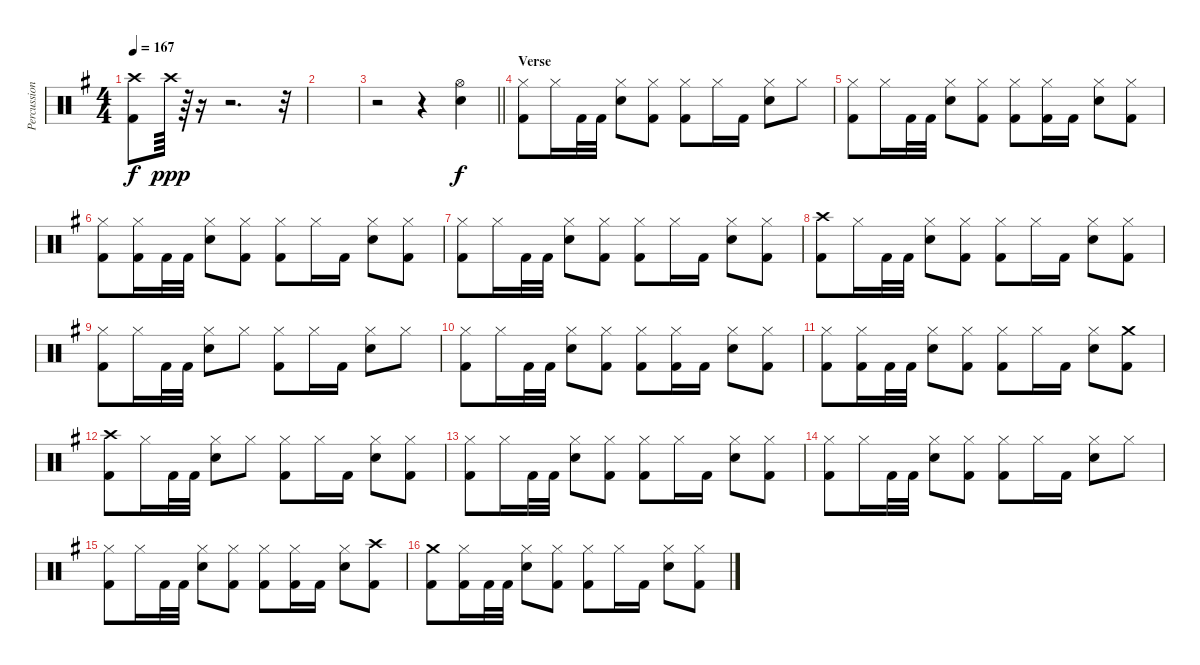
\track ("Percussion" "Percussion") {instrument percussion}
\staff {score}
\articulation defaults
\ts (4 4)
\tempo 167
\clef neutral
\ks g
("Crash high (hit)" "Kick (hit) 2").8{dy f} "Crash high (hit)".64{dy ppp} r.64 r.16 r.2{d} r.32 |
|
\barLineRight lightlight
r.2 r.4 ("Hi-Hat (open)" "Snare (hit) 2").4{dy f} |
\section ("" "Verse")
("Hi-Hat (closed)" "Kick (hit) 2").8 "Hi-Hat (closed)".16 "Kick (hit) 2".32 "Kick (hit) 2".32 ("Hi-Hat (closed)" "Snare (hit) 2").8 ("Hi-Hat (closed)" "Kick (hit) 2").8 ("Hi-Hat (closed)" "Kick (hit) 2").8 "Hi-Hat (closed)".16 "Kick (hit) 2".16 ("Hi-Hat (closed)" "Snare (hit) 2").8 "Hi-Hat (closed)".8 |
("Hi-Hat (closed)" "Kick (hit) 2").8 "Hi-Hat (closed)".16 "Kick (hit) 2".32 "Kick (hit) 2".32 ("Hi-Hat (closed)" "Snare (hit) 2").8 ("Hi-Hat (closed)" "Kick (hit) 2").8 ("Hi-Hat (closed)" "Kick (hit) 2").8 ("Hi-Hat (closed)" "Kick (hit) 2").16 "Kick (hit) 2".16 ("Hi-Hat (closed)" "Snare (hit) 2").8 ("Hi-Hat (closed)" "Kick (hit) 2").8 |
("Hi-Hat (closed)" "Kick (hit) 2").8 ("Hi-Hat (closed)" "Kick (hit) 2").16 "Kick (hit) 2".32 "Kick (hit) 2".32 ("Hi-Hat (closed)" "Snare (hit) 2").8 ("Hi-Hat (closed)" "Kick (hit) 2").8 ("Hi-Hat (closed)" "Kick (hit) 2").8 "Hi-Hat (closed)".16 "Kick (hit) 2".16 ("Hi-Hat (closed)" "Snare (hit) 2").8 ("Hi-Hat (closed)" "Kick (hit) 2").8 |
("Hi-Hat (closed)" "Kick (hit) 2").8 "Hi-Hat (closed)".16 "Kick (hit) 2".32 "Kick (hit) 2".32 ("Hi-Hat (closed)" "Snare (hit) 2").8 ("Hi-Hat (closed)" "Kick (hit) 2").8 ("Hi-Hat (closed)" "Kick (hit) 2").8 "Hi-Hat (closed)".16 "Kick (hit) 2".16 ("Hi-Hat (closed)" "Snare (hit) 2").8 ("Hi-Hat (closed)" "Kick (hit) 2").8 |
("Crash high (hit)" "Kick (hit) 2").8 "Hi-Hat (closed)".16 "Kick (hit) 2".32 "Kick (hit) 2".32 ("Hi-Hat (closed)" "Snare (hit) 2").8 ("Hi-Hat (closed)" "Kick (hit) 2").8 ("Hi-Hat (closed)" "Kick (hit) 2").8 "Hi-Hat (closed)".16 "Kick (hit) 2".16 ("Hi-Hat (closed)" "Snare (hit) 2").8 ("Hi-Hat (closed)" "Kick (hit) 2").8 |
("Hi-Hat (closed)" "Kick (hit) 2").8 "Hi-Hat (closed)".16 "Kick (hit) 2".32 "Kick (hit) 2".32 ("Hi-Hat (closed)" "Snare (hit) 2").8 "Hi-Hat (closed)".8 ("Hi-Hat (closed)" "Kick (hit) 2").8 "Hi-Hat (closed)".16 "Kick (hit) 2".16 ("Hi-Hat (closed)" "Snare (hit) 2").8 "Hi-Hat (closed)".8 |
("Hi-Hat (closed)" "Kick (hit) 2").8 "Hi-Hat (closed)".16 "Kick (hit) 2".32 "Kick (hit) 2".32 ("Hi-Hat (closed)" "Snare (hit) 2").8 ("Hi-Hat (closed)" "Kick (hit) 2").8 ("Hi-Hat (closed)" "Kick (hit) 2").8 ("Hi-Hat (closed)" "Kick (hit) 2").16 "Kick (hit) 2".16 ("Hi-Hat (closed)" "Snare (hit) 2").8 ("Hi-Hat (closed)" "Kick (hit) 2").8 |
("Hi-Hat (closed)" "Kick (hit) 2").8 ("Hi-Hat (closed)" "Kick (hit) 2").16 "Kick (hit) 2".32 "Kick (hit) 2".32 ("Hi-Hat (closed)" "Snare (hit) 2").8 ("Hi-Hat (closed)" "Kick (hit) 2").8 ("Hi-Hat (closed)" "Kick (hit) 2").8 "Hi-Hat (closed)".16 "Kick (hit) 2".16 ("Hi-Hat (closed)" "Snare (hit) 2").8 ("Crash medium (hit)" "Kick (hit) 2").8 |
("Crash high (hit)" "Kick (hit) 2").8 "Hi-Hat (closed)".16 "Kick (hit) 2".32 "Kick (hit) 2".32 ("Hi-Hat (closed)" "Snare (hit) 2").8 "Hi-Hat (closed)".8 ("Hi-Hat (closed)" "Kick (hit) 2").8 "Hi-Hat (closed)".16 "Kick (hit) 2".16 ("Hi-Hat (closed)" "Snare (hit) 2").8 ("Hi-Hat (closed)" "Kick (hit) 2").8 |
("Hi-Hat (closed)" "Kick (hit) 2").8 "Hi-Hat (closed)".16 "Kick (hit) 2".32 "Kick (hit) 2".32 ("Hi-Hat (closed)" "Snare (hit) 2").8 ("Hi-Hat (closed)" "Kick (hit) 2").8 ("Hi-Hat (closed)" "Kick (hit) 2").8 "Hi-Hat (closed)".16 "Kick (hit) 2".16 ("Hi-Hat (closed)" "Snare (hit) 2").8 ("Hi-Hat (closed)" "Kick (hit) 2").8 |
("Hi-Hat (closed)" "Kick (hit) 2").8 "Hi-Hat (closed)".16 "Kick (hit) 2".32 "Kick (hit) 2".32 ("Hi-Hat (closed)" "Snare (hit) 2").8 ("Hi-Hat (closed)" "Kick (hit) 2").8 ("Hi-Hat (closed)" "Kick (hit) 2").8 "Hi-Hat (closed)".16 "Kick (hit) 2".16 ("Hi-Hat (closed)" "Snare (hit) 2").8 "Hi-Hat (closed)".8 |
("Hi-Hat (closed)" "Kick (hit) 2").8 "Hi-Hat (closed)".16 "Kick (hit) 2".32 "Kick (hit) 2".32 ("Hi-Hat (closed)" "Snare (hit) 2").8 ("Hi-Hat (closed)" "Kick (hit) 2").8 ("Hi-Hat (closed)" "Kick (hit) 2").8 ("Hi-Hat (closed)" "Kick (hit) 2").16 "Kick (hit) 2".16 ("Hi-Hat (closed)" "Snare (hit) 2").8 ("Crash high (hit)" "Kick (hit) 2").8 |
("Crash medium (hit)" "Kick (hit) 2").8 ("Hi-Hat (closed)" "Kick (hit) 2").16 "Kick (hit) 2".32 "Kick (hit) 2".32 ("Hi-Hat (closed)" "Snare (hit) 2").8 ("Hi-Hat (closed)" "Kick (hit) 2").8 ("Hi-Hat (closed)" "Kick (hit) 2").8 "Hi-Hat (closed)".16 "Kick (hit) 2".16 ("Hi-Hat (closed)" "Snare (hit) 2").8 ("Hi-Hat (closed)" "Kick (hit) 2").8
